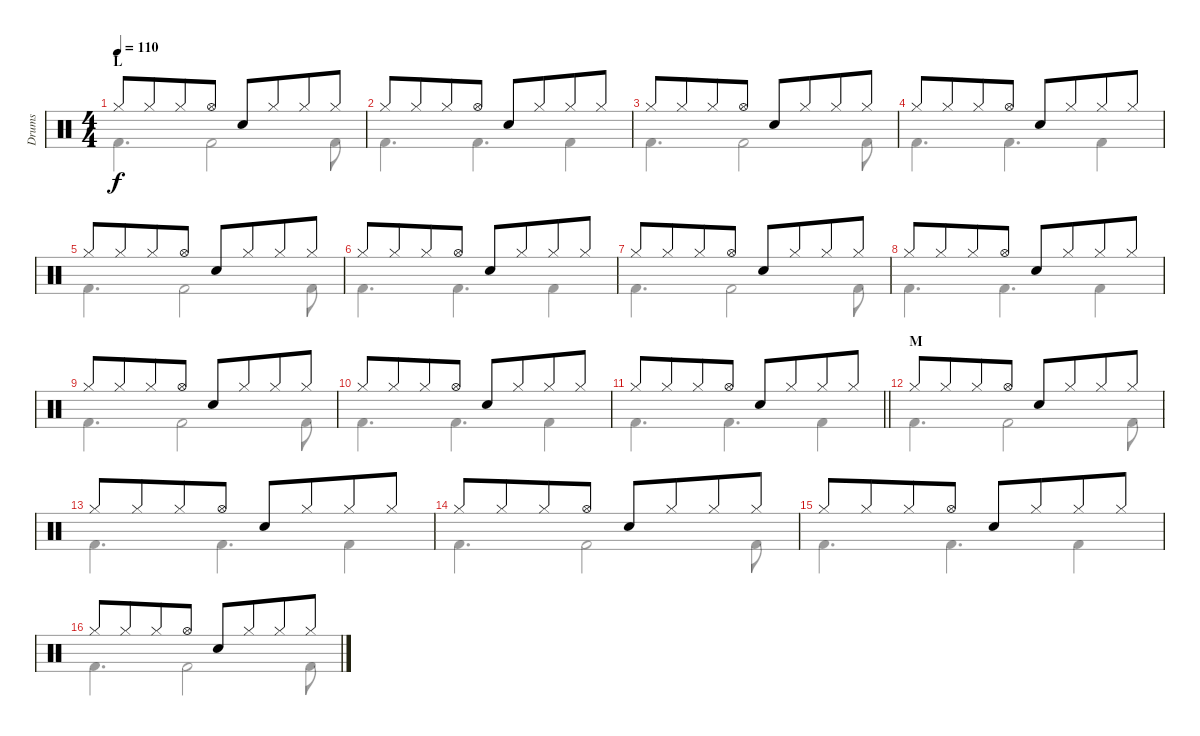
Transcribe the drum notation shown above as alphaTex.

\track ("Drums" "Drums") {instrument percussion}
\staff {score}
\articulation defaults
\voice
\ts (4 4)
\section ("" "L")
\tempo 110
\clef neutral
\ks c "Hi-Hat (closed)".8{dy f} "Hi-Hat (closed)".8{beam merge} "Hi-Hat (closed)".8 "Hi-Hat (open)".8 "Snare (hit) 2".8 "Hi-Hat (closed)".8{beam merge} "Hi-Hat (closed)".8 "Hi-Hat (closed)".8
|
"Hi-Hat (closed)".8 "Hi-Hat (closed)".8{beam merge} "Hi-Hat (closed)".8 "Hi-Hat (open)".8 "Snare (hit) 2".8 "Hi-Hat (closed)".8{beam merge} "Hi-Hat (closed)".8 "Hi-Hat (closed)".8 |
"Hi-Hat (closed)".8 "Hi-Hat (closed)".8{beam merge} "Hi-Hat (closed)".8 "Hi-Hat (open)".8 "Snare (hit) 2".8 "Hi-Hat (closed)".8{beam merge} "Hi-Hat (closed)".8 "Hi-Hat (closed)".8 |
"Hi-Hat (closed)".8 "Hi-Hat (closed)".8{beam merge} "Hi-Hat (closed)".8 "Hi-Hat (open)".8 "Snare (hit) 2".8 "Hi-Hat (closed)".8{beam merge} "Hi-Hat (closed)".8 "Hi-Hat (closed)".8 |
"Hi-Hat (closed)".8 "Hi-Hat (closed)".8{beam merge} "Hi-Hat (closed)".8 "Hi-Hat (open)".8 "Snare (hit) 2".8 "Hi-Hat (closed)".8{beam merge} "Hi-Hat (closed)".8 "Hi-Hat (closed)".8 |
"Hi-Hat (closed)".8 "Hi-Hat (closed)".8{beam merge} "Hi-Hat (closed)".8 "Hi-Hat (open)".8 "Snare (hit) 2".8 "Hi-Hat (closed)".8{beam merge} "Hi-Hat (closed)".8 "Hi-Hat (closed)".8 |
"Hi-Hat (closed)".8 "Hi-Hat (closed)".8{beam merge} "Hi-Hat (closed)".8 "Hi-Hat (open)".8 "Snare (hit) 2".8 "Hi-Hat (closed)".8{beam merge} "Hi-Hat (closed)".8 "Hi-Hat (closed)".8 |
"Hi-Hat (closed)".8 "Hi-Hat (closed)".8{beam merge} "Hi-Hat (closed)".8 "Hi-Hat (open)".8 "Snare (hit) 2".8 "Hi-Hat (closed)".8{beam merge} "Hi-Hat (closed)".8 "Hi-Hat (closed)".8 |
"Hi-Hat (closed)".8 "Hi-Hat (closed)".8{beam merge} "Hi-Hat (closed)".8 "Hi-Hat (open)".8 "Snare (hit) 2".8 "Hi-Hat (closed)".8{beam merge} "Hi-Hat (closed)".8 "Hi-Hat (closed)".8 |
"Hi-Hat (closed)".8 "Hi-Hat (closed)".8{beam merge} "Hi-Hat (closed)".8 "Hi-Hat (open)".8 "Snare (hit) 2".8 "Hi-Hat (closed)".8{beam merge} "Hi-Hat (closed)".8 "Hi-Hat (closed)".8 |
\barLineRight lightlight "Hi-Hat (closed)".8 "Hi-Hat (closed)".8{beam merge} "Hi-Hat (closed)".8 "Hi-Hat (open)".8 "Snare (hit) 2".8 "Hi-Hat (closed)".8{beam merge} "Hi-Hat (closed)".8 "Hi-Hat (closed)".8
|
\section ("" "M")
"Hi-Hat (closed)".8 "Hi-Hat (closed)".8{beam merge} "Hi-Hat (closed)".8 "Hi-Hat (open)".8 "Snare (hit) 2".8 "Hi-Hat (closed)".8{beam merge} "Hi-Hat (closed)".8 "Hi-Hat (closed)".8 |
"Hi-Hat (closed)".8 "Hi-Hat (closed)".8{beam merge} "Hi-Hat (closed)".8 "Hi-Hat (open)".8 "Snare (hit) 2".8 "Hi-Hat (closed)".8{beam merge} "Hi-Hat (closed)".8 "Hi-Hat (closed)".8 |
"Hi-Hat (closed)".8 "Hi-Hat (closed)".8{beam merge} "Hi-Hat (closed)".8 "Hi-Hat (open)".8 "Snare (hit) 2".8 "Hi-Hat (closed)".8{beam merge} "Hi-Hat (closed)".8 "Hi-Hat (closed)".8 |
"Hi-Hat (closed)".8 "Hi-Hat (closed)".8{beam merge} "Hi-Hat (closed)".8 "Hi-Hat (open)".8 "Snare (hit) 2".8 "Hi-Hat (closed)".8{beam merge} "Hi-Hat (closed)".8 "Hi-Hat (closed)".8 |
"Hi-Hat (closed)".8 "Hi-Hat (closed)".8{beam merge} "Hi-Hat (closed)".8 "Hi-Hat (open)".8 "Snare (hit) 2".8 "Hi-Hat (closed)".8{beam merge} "Hi-Hat (closed)".8 "Hi-Hat (closed)".8
\voice
\clef neutral
\ottava regular
\simile none
\ks c "Kick (hit) 2".4{d dy f} "Kick (hit) 2".2 "Kick (hit) 2".8
|
"Kick (hit) 2".4{d} "Kick (hit) 2".4{d} "Kick (hit) 2".4 |
"Kick (hit) 2".4{d} "Kick (hit) 2".2 "Kick (hit) 2".8 |
"Kick (hit) 2".4{d} "Kick (hit) 2".4{d} "Kick (hit) 2".4 |
"Kick (hit) 2".4{d} "Kick (hit) 2".2 "Kick (hit) 2".8 |
"Kick (hit) 2".4{d} "Kick (hit) 2".4{d} "Kick (hit) 2".4 |
"Kick (hit) 2".4{d} "Kick (hit) 2".2 "Kick (hit) 2".8 |
"Kick (hit) 2".4{d} "Kick (hit) 2".4{d} "Kick (hit) 2".4 |
"Kick (hit) 2".4{d} "Kick (hit) 2".2 "Kick (hit) 2".8 |
"Kick (hit) 2".4{d} "Kick (hit) 2".4{d} "Kick (hit) 2".4 |
\barLineRight lightlight "Kick (hit) 2".4{d} "Kick (hit) 2".4{d} "Kick (hit) 2".4
|
"Kick (hit) 2".4{d} "Kick (hit) 2".2 "Kick (hit) 2".8 |
"Kick (hit) 2".4{d} "Kick (hit) 2".4{d} "Kick (hit) 2".4 |
"Kick (hit) 2".4{d} "Kick (hit) 2".2 "Kick (hit) 2".8 |
"Kick (hit) 2".4{d} "Kick (hit) 2".4{d} "Kick (hit) 2".4 |
"Kick (hit) 2".4{d} "Kick (hit) 2".2 "Kick (hit) 2".8
